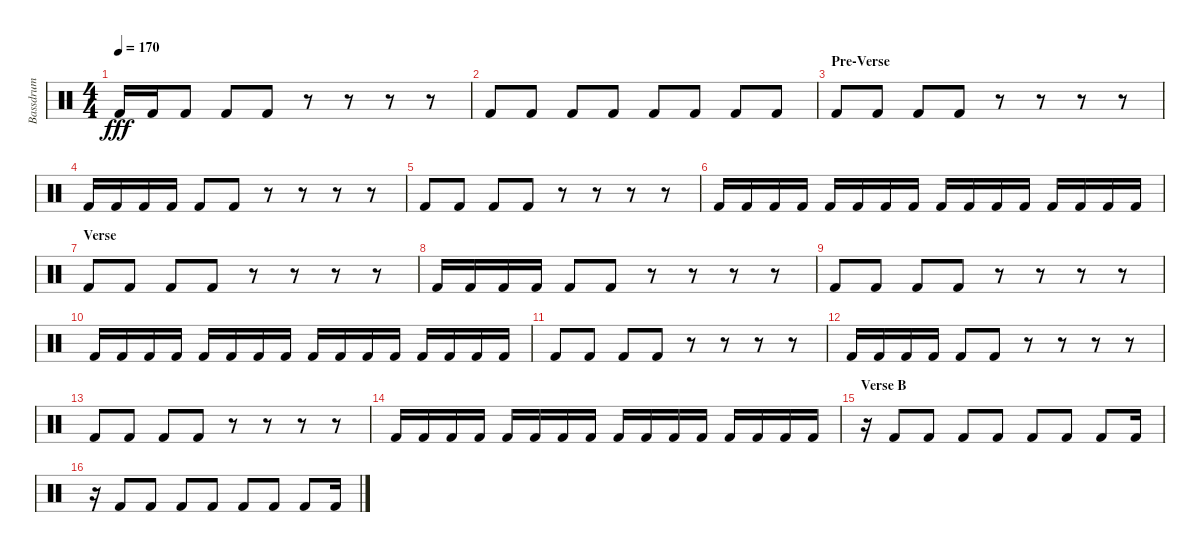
\track ("Bassdrum" "Bassdrum") {instrument percussion}
\staff {score}
\articulation defaults
\ts (4 4)
\tempo 170
\clef neutral
\ks c "Kick (hit) 2".16{dy fff} "Kick (hit) 2".16 "Kick (hit) 2".8 "Kick (hit) 2".8 "Kick (hit) 2".8
r.8 r.8 r.8 r.8 |
"Kick (hit) 2".8 "Kick (hit) 2".8 "Kick (hit) 2".8 "Kick (hit) 2".8 "Kick (hit) 2".8 "Kick (hit) 2".8 "Kick (hit) 2".8 "Kick (hit) 2".8 |
\section ("" "Pre-Verse")
"Kick (hit) 2".8 "Kick (hit) 2".8 "Kick (hit) 2".8 "Kick (hit) 2".8 r.8 r.8 r.8 r.8 |
"Kick (hit) 2".16 "Kick (hit) 2".16 "Kick (hit) 2".16 "Kick (hit) 2".16 "Kick (hit) 2".8 "Kick (hit) 2".8 r.8 r.8 r.8 r.8 |
"Kick (hit) 2".8 "Kick (hit) 2".8 "Kick (hit) 2".8 "Kick (hit) 2".8 r.8 r.8 r.8 r.8 |
"Kick (hit) 2".16 "Kick (hit) 2".16 "Kick (hit) 2".16 "Kick (hit) 2".16 "Kick (hit) 2".16 "Kick (hit) 2".16 "Kick (hit) 2".16 "Kick (hit) 2".16 "Kick (hit) 2".16 "Kick (hit) 2".16 "Kick (hit) 2".16 "Kick (hit) 2".16 "Kick (hit) 2".16 "Kick (hit) 2".16 "Kick (hit) 2".16 "Kick (hit) 2".16 |
\section ("" "Verse")
"Kick (hit) 2".8 "Kick (hit) 2".8 "Kick (hit) 2".8 "Kick (hit) 2".8 r.8 r.8 r.8 r.8 |
"Kick (hit) 2".16 "Kick (hit) 2".16 "Kick (hit) 2".16 "Kick (hit) 2".16 "Kick (hit) 2".8 "Kick (hit) 2".8 r.8 r.8 r.8 r.8 |
"Kick (hit) 2".8 "Kick (hit) 2".8 "Kick (hit) 2".8 "Kick (hit) 2".8 r.8 r.8 r.8 r.8 |
"Kick (hit) 2".16 "Kick (hit) 2".16 "Kick (hit) 2".16 "Kick (hit) 2".16 "Kick (hit) 2".16 "Kick (hit) 2".16 "Kick (hit) 2".16 "Kick (hit) 2".16 "Kick (hit) 2".16 "Kick (hit) 2".16 "Kick (hit) 2".16 "Kick (hit) 2".16 "Kick (hit) 2".16 "Kick (hit) 2".16 "Kick (hit) 2".16 "Kick (hit) 2".16 |
"Kick (hit) 2".8 "Kick (hit) 2".8 "Kick (hit) 2".8 "Kick (hit) 2".8 r.8 r.8 r.8 r.8 |
"Kick (hit) 2".16 "Kick (hit) 2".16 "Kick (hit) 2".16 "Kick (hit) 2".16 "Kick (hit) 2".8 "Kick (hit) 2".8 r.8 r.8 r.8 r.8 |
"Kick (hit) 2".8 "Kick (hit) 2".8 "Kick (hit) 2".8 "Kick (hit) 2".8 r.8 r.8 r.8 r.8 |
"Kick (hit) 2".16 "Kick (hit) 2".16 "Kick (hit) 2".16 "Kick (hit) 2".16 "Kick (hit) 2".16 "Kick (hit) 2".16 "Kick (hit) 2".16 "Kick (hit) 2".16 "Kick (hit) 2".16 "Kick (hit) 2".16 "Kick (hit) 2".16 "Kick (hit) 2".16 "Kick (hit) 2".16 "Kick (hit) 2".16 "Kick (hit) 2".16 "Kick (hit) 2".16 |
\section ("" "Verse B")
r.16 "Kick (hit) 2".8 "Kick (hit) 2".8 "Kick (hit) 2".8 "Kick (hit) 2".8 "Kick (hit) 2".8 "Kick (hit) 2".8 "Kick (hit) 2".8 "Kick (hit) 2".16 |
r.16 "Kick (hit) 2".8 "Kick (hit) 2".8 "Kick (hit) 2".8 "Kick (hit) 2".8 "Kick (hit) 2".8 "Kick (hit) 2".8 "Kick (hit) 2".8 "Kick (hit) 2".16
